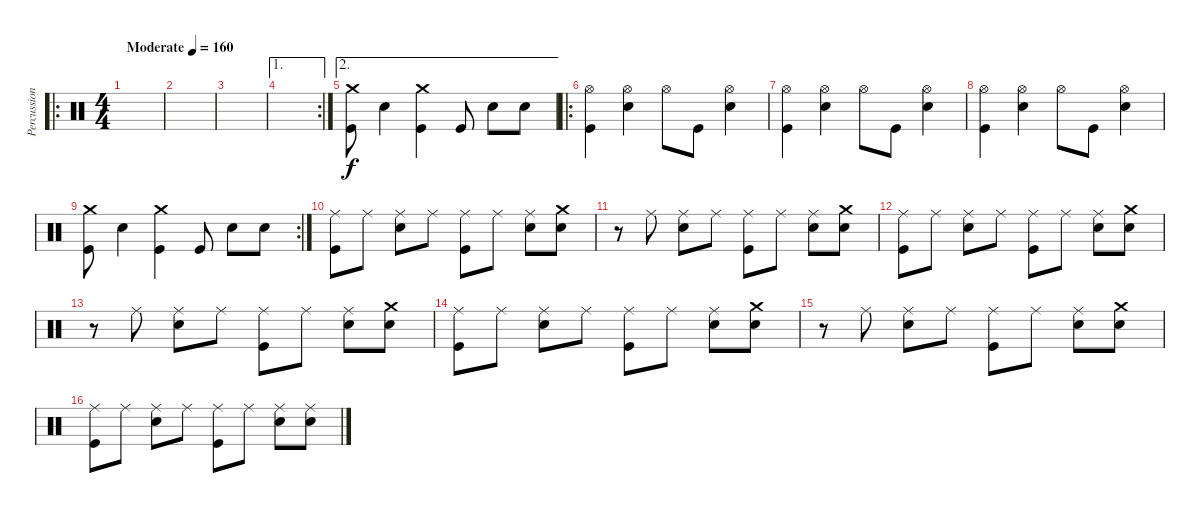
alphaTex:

\track ("Percussion" "Percussion") {instrument percussion}
\staff {score}
\articulation defaults
\ro
\ts (4 4)
\tempo (160 "Moderate")
\clef neutral
\ks c
|
|
|
\ae 1
\rc 2
|
\ae 2
("Crash medium (hit)" "Kick (hit)").8 "Snare (hit) 2".4 ("Crash medium (hit)" "Kick (hit)").4 "Kick (hit)".8 "Snare (hit) 2".8 "Snare (hit) 2".8 |
\ro
("Hi-Hat (open)" "Kick (hit)").4 ("Hi-Hat (open)" "Snare (hit) 2").4 "Hi-Hat (open)".8 "Kick (hit)".8 ("Hi-Hat (open)" "Snare (hit) 2").4 |
("Hi-Hat (open)" "Kick (hit)").4 ("Hi-Hat (open)" "Snare (hit) 2").4 "Hi-Hat (open)".8 "Kick (hit)".8 ("Hi-Hat (open)" "Snare (hit) 2").4 |
("Hi-Hat (open)" "Kick (hit)").4 ("Hi-Hat (open)" "Snare (hit) 2").4 "Hi-Hat (open)".8 "Kick (hit)".8 ("Hi-Hat (open)" "Snare (hit) 2").4 |
\rc 2
("Crash medium (hit)" "Kick (hit)").8 "Snare (hit) 2".4 ("Crash medium (hit)" "Kick (hit)").4 "Kick (hit)".8 "Snare (hit) 2".8 "Snare (hit) 2".8 |
("Ride (middle)" "Kick (hit)").8 "Ride (middle)".8 ("Ride (middle)" "Snare (hit) 2").8 "Ride (middle)".8 ("Ride (middle)" "Kick (hit)").8 "Ride (middle)".8 ("Ride (middle)" "Snare (hit) 2").8 ("Crash medium (hit)" "Snare (hit) 2").8 |
r.8 "Ride (middle)".8 ("Ride (middle)" "Snare (hit) 2").8 "Ride (middle)".8 ("Ride (middle)" "Kick (hit)").8 "Ride (middle)".8 ("Ride (middle)" "Snare (hit) 2").8 ("Crash medium (hit)" "Snare (hit) 2").8 |
("Ride (middle)" "Kick (hit)").8 "Ride (middle)".8 ("Ride (middle)" "Snare (hit) 2").8 "Ride (middle)".8 ("Ride (middle)" "Kick (hit)").8 "Ride (middle)".8 ("Ride (middle)" "Snare (hit) 2").8 ("Crash medium (hit)" "Snare (hit) 2").8 |
r.8 "Ride (middle)".8 ("Ride (middle)" "Snare (hit) 2").8 "Ride (middle)".8 ("Ride (middle)" "Kick (hit)").8 "Ride (middle)".8 ("Ride (middle)" "Snare (hit) 2").8 ("Crash medium (hit)" "Snare (hit) 2").8 |
("Ride (middle)" "Kick (hit)").8 "Ride (middle)".8 ("Ride (middle)" "Snare (hit) 2").8 "Ride (middle)".8 ("Ride (middle)" "Kick (hit)").8 "Ride (middle)".8 ("Ride (middle)" "Snare (hit) 2").8 ("Crash medium (hit)" "Snare (hit) 2").8 |
r.8 "Ride (middle)".8 ("Ride (middle)" "Snare (hit) 2").8 "Ride (middle)".8 ("Ride (middle)" "Kick (hit)").8 "Ride (middle)".8 ("Ride (middle)" "Snare (hit) 2").8 ("Crash medium (hit)" "Snare (hit) 2").8 |
("Ride (middle)" "Kick (hit)").8 "Ride (middle)".8 ("Ride (middle)" "Snare (hit) 2").8 "Ride (middle)".8 ("Ride (middle)" "Kick (hit)").8 "Ride (middle)".8 ("Ride (middle)" "Snare (hit) 2").8 ("Ride (middle)" "Snare (hit) 2").8
